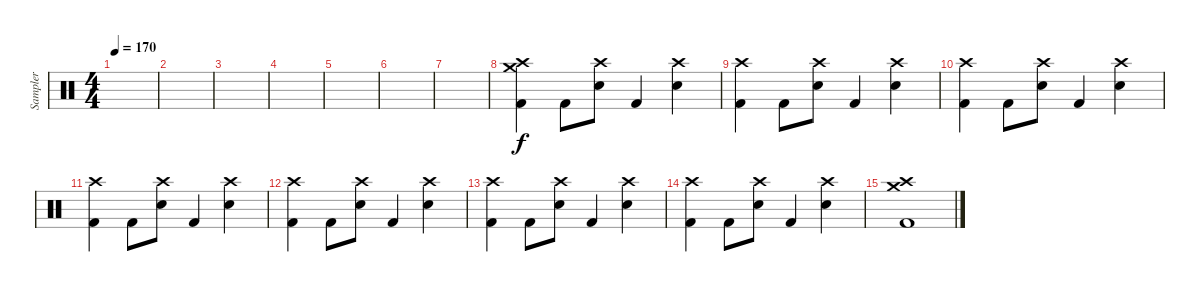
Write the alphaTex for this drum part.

\track ("Sampler" "Sampler") {instrument percussion}
\staff {score}
\articulation defaults
\ts (4 4)
\tempo 170
\clef neutral
\ks c
|
|
|
|
|
|
|
("Crash high (hit)" "Crash medium (hit)" "Kick (hit) 2").4 "Kick (hit) 2".8 ("Crash high (hit)" "Snare (hit) 2").8 "Kick (hit) 2".4 ("Crash high (hit)" "Snare (hit) 2").4 |
("Crash high (hit)" "Kick (hit) 2").4 "Kick (hit) 2".8 ("Crash high (hit)" "Snare (hit) 2").8 "Kick (hit) 2".4 ("Crash high (hit)" "Snare (hit) 2").4 |
("Crash high (hit)" "Kick (hit) 2").4 "Kick (hit) 2".8 ("Crash high (hit)" "Snare (hit) 2").8 "Kick (hit) 2".4 ("Crash high (hit)" "Snare (hit) 2").4 |
("Crash high (hit)" "Kick (hit) 2").4 "Kick (hit) 2".8 ("Crash high (hit)" "Snare (hit) 2").8 "Kick (hit) 2".4 ("Crash high (hit)" "Snare (hit) 2").4 |
("Crash high (hit)" "Kick (hit) 2").4 "Kick (hit) 2".8 ("Crash high (hit)" "Snare (hit) 2").8 "Kick (hit) 2".4 ("Crash high (hit)" "Snare (hit) 2").4 |
("Crash high (hit)" "Kick (hit) 2").4 "Kick (hit) 2".8 ("Crash high (hit)" "Snare (hit) 2").8 "Kick (hit) 2".4 ("Crash high (hit)" "Snare (hit) 2").4 |
("Crash high (hit)" "Kick (hit) 2").4 "Kick (hit) 2".8 ("Crash high (hit)" "Snare (hit) 2").8 "Kick (hit) 2".4 ("Crash high (hit)" "Snare (hit) 2").4 |
("Crash high (hit)" "Crash medium (hit)" "Kick (hit) 2").1
